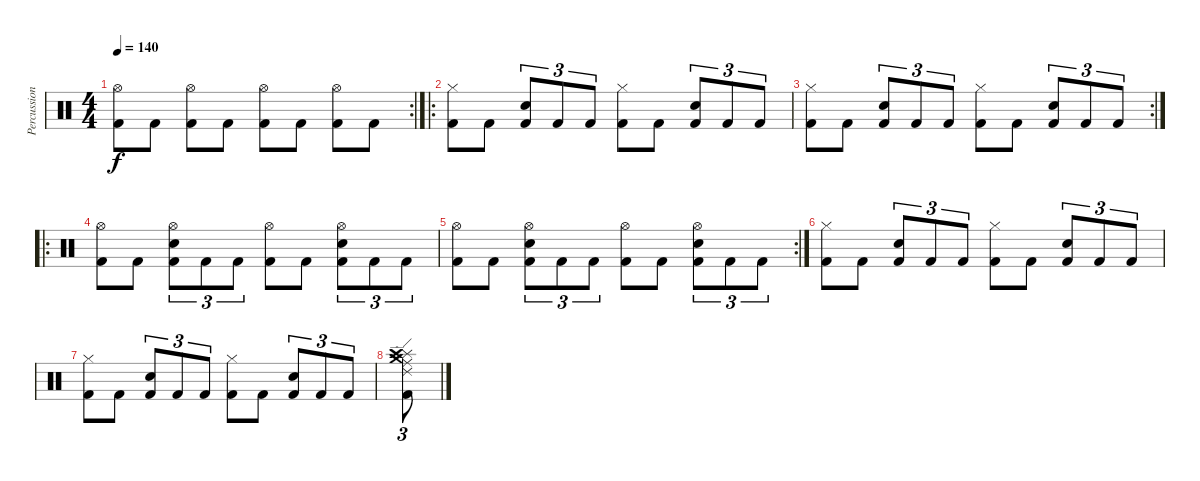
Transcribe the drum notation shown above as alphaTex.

\track ("Percussion" "Percussion") {instrument percussion}
\staff {score}
\articulation defaults
\rc 2
\ts (4 4)
\tempo 140
\clef neutral
\ks c
("Hi-Hat (open)" "Kick (hit) 2").8{dy f} "Kick (hit) 2".8 ("Hi-Hat (open)" "Kick (hit) 2").8 "Kick (hit) 2".8 ("Hi-Hat (open)" "Kick (hit) 2").8 "Kick (hit) 2".8 ("Hi-Hat (open)" "Kick (hit) 2").8 "Kick (hit) 2".8 |
\ro
("Hi-Hat (closed)" "Kick (hit) 2").8 "Kick (hit) 2".8 ("Snare (hit) 2" "Kick (hit) 2").8{tu (3 2)} "Kick (hit) 2".8{tu (3 2)} "Kick (hit) 2".8{tu (3 2)} ("Hi-Hat (closed)" "Kick (hit) 2").8 "Kick (hit) 2".8 ("Snare (hit) 2" "Kick (hit) 2").8{tu (3 2)} "Kick (hit) 2".8{tu (3 2)} "Kick (hit) 2".8{tu (3 2)} |
\rc 2
("Hi-Hat (closed)" "Kick (hit) 2").8 "Kick (hit) 2".8 ("Snare (hit) 2" "Kick (hit) 2").8{tu (3 2)} "Kick (hit) 2".8{tu (3 2)} "Kick (hit) 2".8{tu (3 2)} ("Hi-Hat (closed)" "Kick (hit) 2").8 "Kick (hit) 2".8 ("Snare (hit) 2" "Kick (hit) 2").8{tu (3 2)} "Kick (hit) 2".8{tu (3 2)} "Kick (hit) 2".8{tu (3 2)} |
\ro
("Hi-Hat (open)" "Kick (hit) 2").8 "Kick (hit) 2".8 ("Hi-Hat (open)" "Snare (hit) 2" "Kick (hit) 2").8{tu (3 2)} "Kick (hit) 2".8{tu (3 2)} "Kick (hit) 2".8{tu (3 2)} ("Hi-Hat (open)" "Kick (hit) 2").8 "Kick (hit) 2".8 ("Hi-Hat (open)" "Snare (hit) 2" "Kick (hit) 2").8{tu (3 2)} "Kick (hit) 2".8{tu (3 2)} "Kick (hit) 2".8{tu (3 2)} |
\rc 2
("Hi-Hat (open)" "Kick (hit) 2").8 "Kick (hit) 2".8 ("Hi-Hat (open)" "Snare (hit) 2" "Kick (hit) 2").8{tu (3 2)} "Kick (hit) 2".8{tu (3 2)} "Kick (hit) 2".8{tu (3 2)} ("Hi-Hat (open)" "Kick (hit) 2").8 "Kick (hit) 2".8 ("Hi-Hat (open)" "Snare (hit) 2" "Kick (hit) 2").8{tu (3 2)} "Kick (hit) 2".8{tu (3 2)} "Kick (hit) 2".8{tu (3 2)} |
("Hi-Hat (closed)" "Kick (hit) 2").8 "Kick (hit) 2".8 ("Snare (hit) 2" "Kick (hit) 2").8{tu (3 2)} "Kick (hit) 2".8{tu (3 2)} "Kick (hit) 2".8{tu (3 2)} ("Hi-Hat (closed)" "Kick (hit) 2").8 "Kick (hit) 2".8 ("Snare (hit) 2" "Kick (hit) 2").8{tu (3 2)} "Kick (hit) 2".8{tu (3 2)} "Kick (hit) 2".8{tu (3 2)} |
("Hi-Hat (closed)" "Kick (hit) 2").8 "Kick (hit) 2".8 ("Snare (hit) 2" "Kick (hit) 2").8{tu (3 2)} "Kick (hit) 2".8{tu (3 2)} "Kick (hit) 2".8{tu (3 2)} ("Hi-Hat (closed)" "Kick (hit) 2").8 "Kick (hit) 2".8 ("Snare (hit) 2" "Kick (hit) 2").8{tu (3 2)} "Kick (hit) 2".8{tu (3 2)} "Kick (hit) 2".8{tu (3 2)} |
("Kick (hit) 2" "Ride (middle)" "Ride (edge) 2" "Splash (hit)" "Crash medium (hit)" "Crash high (hit)").8{tu (3 2)}
